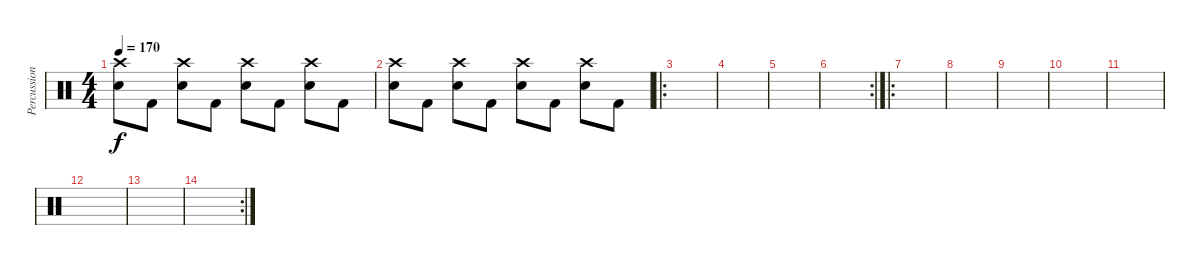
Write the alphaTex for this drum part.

\track ("Percussion" "Percussion") {instrument percussion}
\staff {score}
\articulation defaults
\ts (4 4)
\tempo 170
\clef neutral
\ks c
("Crash high (hit)" "Electric Snare (hit)").8{dy f} "Kick (hit) 2".8 ("Crash high (hit)" "Electric Snare (hit)").8 "Kick (hit) 2".8 ("Crash high (hit)" "Electric Snare (hit)").8 "Kick (hit) 2".8 ("Crash high (hit)" "Electric Snare (hit)").8 "Kick (hit) 2".8 |
("Crash high (hit)" "Electric Snare (hit)").8 "Kick (hit) 2".8 ("Crash high (hit)" "Electric Snare (hit)").8 "Kick (hit) 2".8 ("Crash high (hit)" "Electric Snare (hit)").8 "Kick (hit) 2".8 ("Crash high (hit)" "Electric Snare (hit)").8 "Kick (hit) 2".8 |
\ro
|
|
|
\rc 2
|
\ro
|
|
|
|
|
|
|
\rc 2
